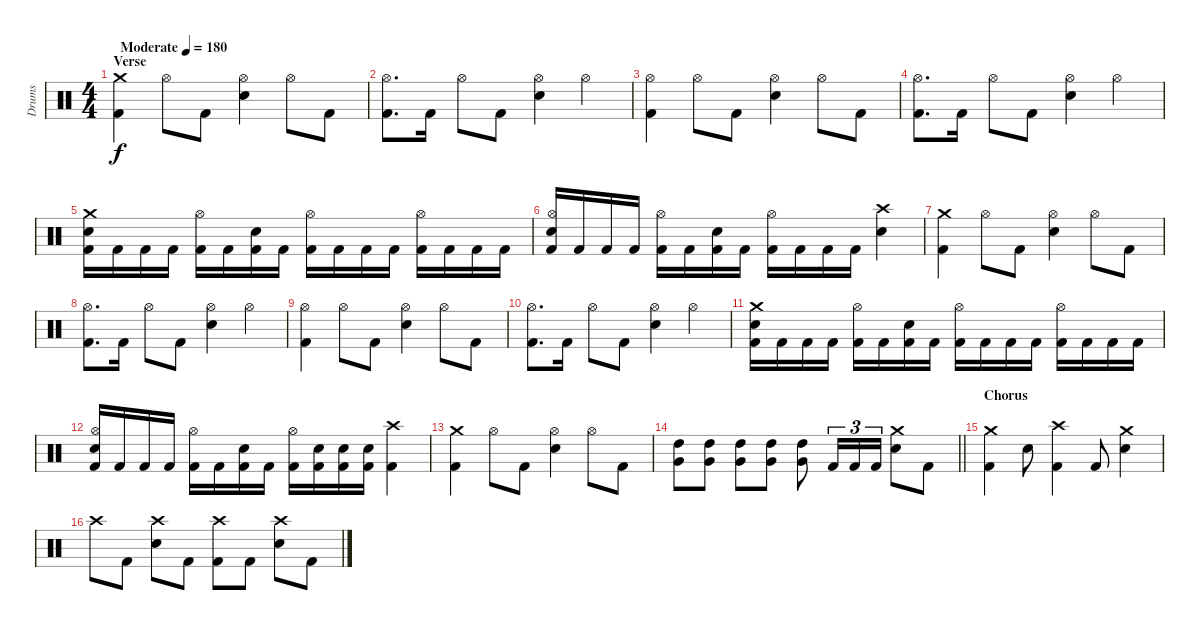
\track ("Drums" "Drums") {instrument percussion}
\staff {score}
\articulation defaults
\ts (4 4)
\section ("" "Verse")
\tempo (180 "Moderate")
\clef neutral
\ks c
("Crash medium (hit)" "Kick (hit) 2").4{dy f} "Hi-Hat (open)".8 "Kick (hit) 2".8 ("Hi-Hat (open)" "Snare (hit) 2").4 "Hi-Hat (open)".8 "Kick (hit) 2".8 |
("Hi-Hat (open)" "Kick (hit) 2").8{d} "Kick (hit) 2".16 "Hi-Hat (open)".8 "Kick (hit) 2".8 ("Hi-Hat (open)" "Snare (hit) 2").4 "Hi-Hat (open)".4 |
("Hi-Hat (open)" "Kick (hit) 2").4 "Hi-Hat (open)".8 "Kick (hit) 2".8 ("Hi-Hat (open)" "Snare (hit) 2").4 "Hi-Hat (open)".8 "Kick (hit) 2".8 |
("Hi-Hat (open)" "Kick (hit) 2").8{d} "Kick (hit) 2".16 "Hi-Hat (open)".8 "Kick (hit) 2".8 ("Hi-Hat (open)" "Snare (hit) 2").4 "Hi-Hat (open)".4 |
("Crash medium (hit)" "Snare (hit) 2" "Kick (hit) 2").16 "Kick (hit) 2".16 "Kick (hit) 2".16 "Kick (hit) 2".16 ("Hi-Hat (open)" "Kick (hit) 2").16 "Kick (hit) 2".16 ("Snare (hit) 2" "Kick (hit) 2").16 "Kick (hit) 2".16 ("Hi-Hat (open)" "Kick (hit) 2").16 "Kick (hit) 2".16 "Kick (hit) 2".16 "Kick (hit) 2".16 ("Hi-Hat (open)" "Kick (hit) 2").16 "Kick (hit) 2".16 "Kick (hit) 2".16 "Kick (hit) 2".16 |
("Hi-Hat (open)" "Snare (hit) 2" "Kick (hit) 2").16 "Kick (hit) 2".16 "Kick (hit) 2".16 "Kick (hit) 2".16 ("Hi-Hat (open)" "Kick (hit) 2").16 "Kick (hit) 2".16 ("Snare (hit) 2" "Kick (hit) 2").16 "Kick (hit) 2".16 ("Hi-Hat (open)" "Kick (hit) 2").16 "Kick (hit) 2".16 "Kick (hit) 2".16 "Kick (hit) 2".16 ("Crash high (hit)" "Snare (hit) 2").4 |
("Crash medium (hit)" "Kick (hit) 2").4 "Hi-Hat (open)".8 "Kick (hit) 2".8 ("Hi-Hat (open)" "Snare (hit) 2").4 "Hi-Hat (open)".8 "Kick (hit) 2".8 |
("Hi-Hat (open)" "Kick (hit) 2").8{d} "Kick (hit) 2".16 "Hi-Hat (open)".8 "Kick (hit) 2".8 ("Hi-Hat (open)" "Snare (hit) 2").4 "Hi-Hat (open)".4 |
("Hi-Hat (open)" "Kick (hit) 2").4 "Hi-Hat (open)".8 "Kick (hit) 2".8 ("Hi-Hat (open)" "Snare (hit) 2").4 "Hi-Hat (open)".8 "Kick (hit) 2".8 |
("Hi-Hat (open)" "Kick (hit) 2").8{d} "Kick (hit) 2".16 "Hi-Hat (open)".8 "Kick (hit) 2".8 ("Hi-Hat (open)" "Snare (hit) 2").4 "Hi-Hat (open)".4 |
("Crash medium (hit)" "Snare (hit) 2" "Kick (hit) 2").16 "Kick (hit) 2".16 "Kick (hit) 2".16 "Kick (hit) 2".16 ("Hi-Hat (open)" "Kick (hit) 2").16 "Kick (hit) 2".16 ("Snare (hit) 2" "Kick (hit) 2").16 "Kick (hit) 2".16 ("Hi-Hat (open)" "Kick (hit) 2").16 "Kick (hit) 2".16 "Kick (hit) 2".16 "Kick (hit) 2".16 ("Hi-Hat (open)" "Kick (hit) 2").16 "Kick (hit) 2".16 "Kick (hit) 2".16 "Kick (hit) 2".16 |
("Hi-Hat (open)" "Snare (hit) 2" "Kick (hit) 2").16 "Kick (hit) 2".16 "Kick (hit) 2".16 "Kick (hit) 2".16 ("Hi-Hat (open)" "Kick (hit) 2").16 "Kick (hit) 2".16 ("Snare (hit) 2" "Kick (hit) 2").16 "Kick (hit) 2".16 ("Hi-Hat (open)" "Kick (hit) 2").16 ("Snare (hit) 2" "Kick (hit) 2").16 ("Snare (hit) 2" "Kick (hit) 2").16 ("Snare (hit) 2" "Kick (hit) 2").16 ("Crash high (hit)" "Kick (hit) 2").4 |
("Crash medium (hit)" "Kick (hit) 2").4 "Hi-Hat (open)".8 "Kick (hit) 2".8 ("Hi-Hat (open)" "Snare (hit) 2").4 "Hi-Hat (open)".8 "Kick (hit) 2".8 |
\barLineRight lightlight
("High Tom (hit)" "Very Low Tom (hit)").8 ("High Tom (hit)" "Very Low Tom (hit)").8 ("High Tom (hit)" "Very Low Tom (hit)").8 ("High Tom (hit)" "Very Low Tom (hit)").8 ("High Tom (hit)" "Very Low Tom (hit)").8 "Kick (hit) 2".16{tu (3 2)} "Kick (hit) 2".16{tu (3 2)} "Kick (hit) 2".16{tu (3 2)} ("Crash medium (hit)" "Snare (hit) 2").8 "Kick (hit) 2".8 |
\section ("" "Chorus")
("Crash medium (hit)" "Kick (hit) 2").4 "Snare (hit) 2".8 ("Crash high (hit)" "Kick (hit) 2").4 "Kick (hit) 2".8 ("Crash medium (hit)" "Snare (hit) 2").4 |
"Crash high (hit)".8 "Kick (hit) 2".8 ("Crash high (hit)" "Snare (hit) 2").8 "Kick (hit) 2".8 ("Crash high (hit)" "Kick (hit) 2").8 "Kick (hit) 2".8 ("Crash high (hit)" "Snare (hit) 2").8 "Kick (hit) 2".8
